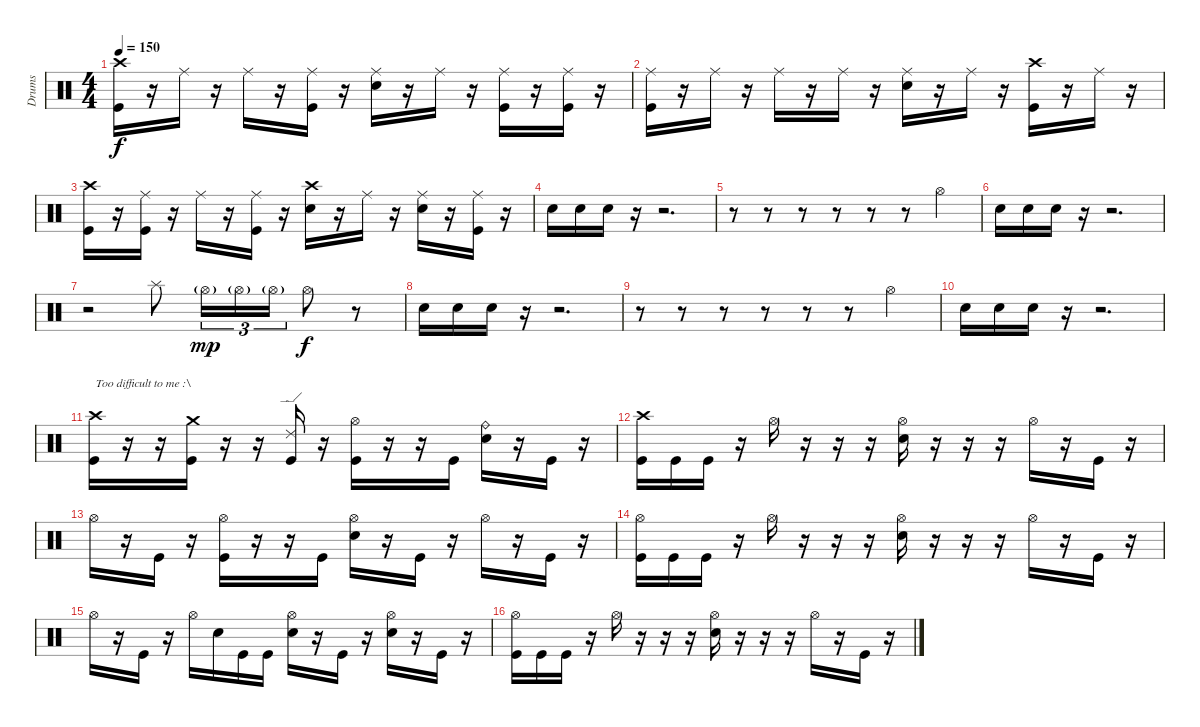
\track ("Drums" "Drums") {instrument percussion}
\staff {score}
\articulation defaults
\ts (4 4)
\tempo 150
\clef neutral
\ks c
("Crash high (hit)" "Kick (hit)").16{dy f} r.16 "Ride (middle)".16 r.16 "Ride (middle)".16 r.16 ("Ride (middle)" "Kick (hit)").16 r.16 ("Ride (middle)" "Electric Snare (hit)").16 r.16 "Ride (middle)".16 r.16 ("Ride (middle)" "Kick (hit)").16 r.16 ("Ride (middle)" "Kick (hit)").16 r.16 |
("Ride (middle)" "Kick (hit)").16 r.16 "Ride (middle)".16 r.16 "Ride (middle)".16 r.16 "Ride (middle)".16 r.16 ("Ride (middle)" "Electric Snare (hit)").16 r.16 "Ride (middle)".16 r.16 ("Crash high (hit)" "Kick (hit)").16 r.16 "Ride (middle)".16 r.16 |
("Crash high (hit)" "Kick (hit)").16 r.16 ("Ride (middle)" "Kick (hit)").16 r.16 "Ride (middle)".16 r.16 ("Ride (middle)" "Kick (hit)").16 r.16 ("Crash high (hit)" "Electric Snare (hit)").16 r.16 "Ride (middle)".16 r.16 ("Ride (middle)" "Electric Snare (hit)").16 r.16 ("Ride (middle)" "Kick (hit)").16 r.16 |
"Electric Snare (hit)".16 "Electric Snare (hit)".16 "Electric Snare (hit)".16 r.16 r.2{d} |
r.8 r.8 r.8 r.8 r.8 r.8 "Hi-Hat (open)".4 |
"Electric Snare (hit)".16 "Electric Snare (hit)".16 "Electric Snare (hit)".16 r.16 r.2{d} |
r.2 "Splash (hit)".8 "Hi-Hat (open)"{g}.16{tu (3 2) dy mp} "Hi-Hat (open)"{g}.16{tu (3 2)} "Hi-Hat (open)"{g}.16{tu (3 2)} "Hi-Hat (open)".8{dy f} r.8 |
"Electric Snare (hit)".16 "Electric Snare (hit)".16 "Electric Snare (hit)".16 r.16 r.2{d} |
r.8 r.8 r.8 r.8 r.8 r.8 "Hi-Hat (open)".4 |
"Electric Snare (hit)".16 "Electric Snare (hit)".16 "Electric Snare (hit)".16 r.16 r.2{d} |
("Crash high (hit)" "Kick (hit)").16{txt "Too difficult to me :\\"} r.16 r.16 ("Crash medium (hit)" "Kick (hit)").16 r.16 r.16 ("Ride (edge) 2" "Kick (hit)").16 r.16 ("Hi-Hat (open)" "Kick (hit)").16 r.16 r.16 "Kick (hit)".16 ("Ride (bell)" "Electric Snare (hit)").16 r.16 "Kick (hit)".16 r.16 |
("Crash high (hit)" "Kick (hit)").16 "Kick (hit)".16 "Kick (hit)".16 r.16 "Hi-Hat (open)".16 r.16 r.16 r.16 ("Hi-Hat (open)" "Electric Snare (hit)").16 r.16 r.16 r.16 "Hi-Hat (open)".16 r.16 "Kick (hit)".16 r.16 |
"Hi-Hat (open)".16 r.16 "Kick (hit)".16 r.16 ("Hi-Hat (open)" "Kick (hit)").16 r.16 r.16 "Kick (hit)".16 ("Hi-Hat (open)" "Electric Snare (hit)").16 r.16 "Kick (hit)".16 r.16 "Hi-Hat (open)".16 r.16 "Kick (hit)".16 r.16 |
("Hi-Hat (open)" "Kick (hit)").16 "Kick (hit)".16 "Kick (hit)".16 r.16 "Hi-Hat (open)".16 r.16 r.16 r.16 ("Hi-Hat (open)" "Electric Snare (hit)").16 r.16 r.16 r.16 "Hi-Hat (open)".16 r.16 "Kick (hit)".16 r.16 |
"Hi-Hat (open)".16 r.16 "Kick (hit)".16 r.16 "Hi-Hat (open)".16 "Electric Snare (hit)".16 "Kick (hit)".16 "Kick (hit)".16 ("Hi-Hat (open)" "Electric Snare (hit)").16 r.16 "Kick (hit)".16 r.16 ("Hi-Hat (open)" "Electric Snare (hit)").16 r.16 "Kick (hit)".16 r.16 |
("Hi-Hat (open)" "Kick (hit)").16 "Kick (hit)".16 "Kick (hit)".16 r.16 "Hi-Hat (open)".16 r.16 r.16 r.16 ("Hi-Hat (open)" "Electric Snare (hit)").16 r.16 r.16 r.16 "Hi-Hat (open)".16 r.16 "Kick (hit)".16 r.16
